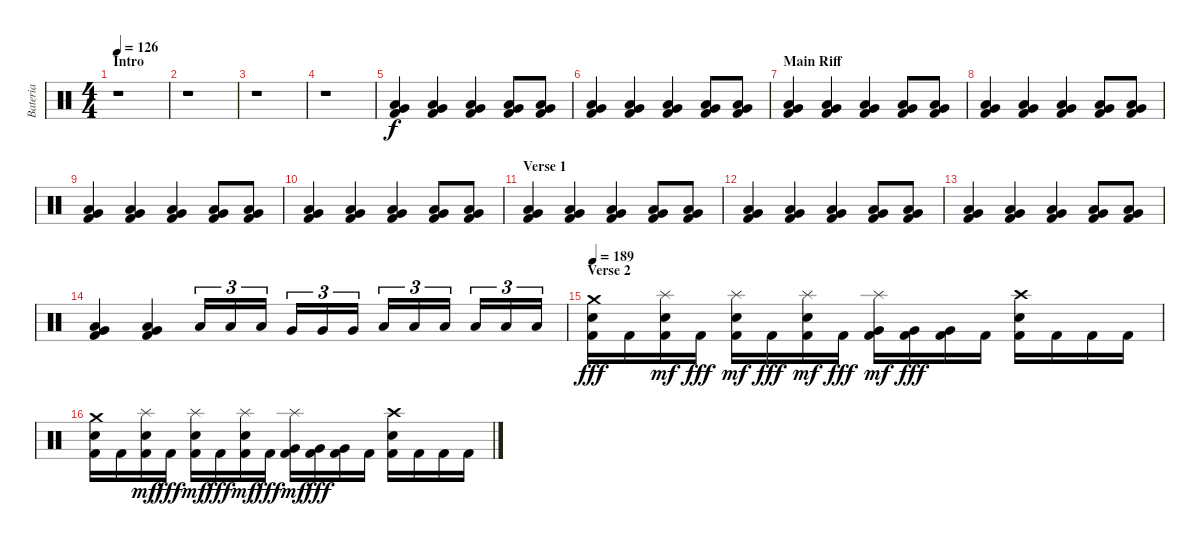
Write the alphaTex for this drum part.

\track ("Bateria" "Bateria") {instrument percussion}
\staff {score}
\articulation defaults
\ts (4 4)
\section ("" "Intro")
\tempo 126
\clef neutral
\ks c
r.1{dy f} |
r.1 |
r.1 |
r.1 |
("Kick (hit) 2" "Very Low Tom (hit)" "Low Floor Tom (hit)").4 ("Kick (hit) 2" "Very Low Tom (hit)" "Low Floor Tom (hit)").4 ("Kick (hit) 2" "Very Low Tom (hit)" "Low Floor Tom (hit)").4 ("Kick (hit) 2" "Very Low Tom (hit)" "Low Floor Tom (hit)").8 ("Kick (hit) 2" "Very Low Tom (hit)" "Low Floor Tom (hit)").8 |
("Kick (hit) 2" "Very Low Tom (hit)" "Low Floor Tom (hit)").4 ("Kick (hit) 2" "Very Low Tom (hit)" "Low Floor Tom (hit)").4 ("Kick (hit) 2" "Very Low Tom (hit)" "Low Floor Tom (hit)").4 ("Kick (hit) 2" "Very Low Tom (hit)" "Low Floor Tom (hit)").8 ("Kick (hit) 2" "Very Low Tom (hit)" "Low Floor Tom (hit)").8 |
\section ("" "Main Riff")
("Kick (hit) 2" "Very Low Tom (hit)" "Low Floor Tom (hit)").4 ("Kick (hit) 2" "Very Low Tom (hit)" "Low Floor Tom (hit)").4 ("Kick (hit) 2" "Very Low Tom (hit)" "Low Floor Tom (hit)").4 ("Kick (hit) 2" "Very Low Tom (hit)" "Low Floor Tom (hit)").8 ("Kick (hit) 2" "Very Low Tom (hit)" "Low Floor Tom (hit)").8 |
("Kick (hit) 2" "Very Low Tom (hit)" "Low Floor Tom (hit)").4 ("Kick (hit) 2" "Very Low Tom (hit)" "Low Floor Tom (hit)").4 ("Kick (hit) 2" "Very Low Tom (hit)" "Low Floor Tom (hit)").4 ("Kick (hit) 2" "Very Low Tom (hit)" "Low Floor Tom (hit)").8 ("Kick (hit) 2" "Very Low Tom (hit)" "Low Floor Tom (hit)").8 |
("Kick (hit) 2" "Very Low Tom (hit)" "Low Floor Tom (hit)").4 ("Kick (hit) 2" "Very Low Tom (hit)" "Low Floor Tom (hit)").4 ("Kick (hit) 2" "Very Low Tom (hit)" "Low Floor Tom (hit)").4 ("Kick (hit) 2" "Very Low Tom (hit)" "Low Floor Tom (hit)").8 ("Kick (hit) 2" "Very Low Tom (hit)" "Low Floor Tom (hit)").8 |
("Kick (hit) 2" "Very Low Tom (hit)" "Low Floor Tom (hit)").4 ("Kick (hit) 2" "Very Low Tom (hit)" "Low Floor Tom (hit)").4 ("Kick (hit) 2" "Very Low Tom (hit)" "Low Floor Tom (hit)").4 ("Kick (hit) 2" "Very Low Tom (hit)" "Low Floor Tom (hit)").8 ("Kick (hit) 2" "Very Low Tom (hit)" "Low Floor Tom (hit)").8 |
\section ("" "Verse 1")
("Kick (hit) 2" "Very Low Tom (hit)" "Low Floor Tom (hit)").4 ("Kick (hit) 2" "Very Low Tom (hit)" "Low Floor Tom (hit)").4 ("Kick (hit) 2" "Very Low Tom (hit)" "Low Floor Tom (hit)").4 ("Kick (hit) 2" "Very Low Tom (hit)" "Low Floor Tom (hit)").8 ("Kick (hit) 2" "Very Low Tom (hit)" "Low Floor Tom (hit)").8 |
("Kick (hit) 2" "Very Low Tom (hit)" "Low Floor Tom (hit)").4 ("Kick (hit) 2" "Very Low Tom (hit)" "Low Floor Tom (hit)").4 ("Kick (hit) 2" "Very Low Tom (hit)" "Low Floor Tom (hit)").4 ("Kick (hit) 2" "Very Low Tom (hit)" "Low Floor Tom (hit)").8 ("Kick (hit) 2" "Very Low Tom (hit)" "Low Floor Tom (hit)").8 |
("Kick (hit) 2" "Very Low Tom (hit)" "Low Floor Tom (hit)").4 ("Kick (hit) 2" "Very Low Tom (hit)" "Low Floor Tom (hit)").4 ("Kick (hit) 2" "Very Low Tom (hit)" "Low Floor Tom (hit)").4 ("Kick (hit) 2" "Very Low Tom (hit)" "Low Floor Tom (hit)").8 ("Kick (hit) 2" "Very Low Tom (hit)" "Low Floor Tom (hit)").8 |
("Kick (hit) 2" "Very Low Tom (hit)" "Low Floor Tom (hit)").4 ("Kick (hit) 2" "Very Low Tom (hit)" "Low Floor Tom (hit)").4 "Low Tom (hit)".16{tu (3 2)} "Low Tom (hit)".16{tu (3 2)} "Low Tom (hit)".16{tu (3 2)} "Very Low Tom (hit)".16{tu (3 2)} "Very Low Tom (hit)".16{tu (3 2)} "Very Low Tom (hit)".16{tu (3 2)} "Low Tom (hit)".16{tu (3 2)} "Low Tom (hit)".16{tu (3 2)} "Low Tom (hit)".16{tu (3 2)} "Low Floor Tom (hit)".16{tu (3 2)} "Low Floor Tom (hit)".16{tu (3 2)} "Low Floor Tom (hit)".16{tu (3 2)} |
\section ("" "Verse 2")
\tempo 189
("Kick (hit) 2" "Electric Snare (hit)" "Crash medium (hit)").16{dy fff} "Kick (hit) 2".16 ("Kick (hit) 2" "Electric Snare (hit)" "Splash (hit)").16{dy mf} "Kick (hit) 2".16{dy fff} ("Kick (hit) 2" "Electric Snare (hit)" "Splash (hit)").16{dy mf} "Kick (hit) 2".16{dy fff} ("Kick (hit) 2" "Electric Snare (hit)" "Splash (hit)").16{dy mf} "Kick (hit) 2".16{dy fff} ("Kick (hit) 2" "Very Low Tom (hit)" "Splash (hit)").16{dy mf} ("Kick (hit) 2" "Very Low Tom (hit)").16{dy fff} ("Kick (hit) 2" "Very Low Tom (hit)").16 "Kick (hit) 2".16 ("Kick (hit) 2" "Electric Snare (hit)" "Crash high (hit)").16 "Kick (hit) 2".16 "Kick (hit) 2".16 "Kick (hit) 2".16 |
("Kick (hit) 2" "Electric Snare (hit)" "Crash medium (hit)").16 "Kick (hit) 2".16 ("Kick (hit) 2" "Electric Snare (hit)" "Splash (hit)").16{dy mf} "Kick (hit) 2".16{dy fff} ("Kick (hit) 2" "Electric Snare (hit)" "Splash (hit)").16{dy mf} "Kick (hit) 2".16{dy fff} ("Kick (hit) 2" "Electric Snare (hit)" "Splash (hit)").16{dy mf} "Kick (hit) 2".16{dy fff} ("Kick (hit) 2" "Very Low Tom (hit)" "Splash (hit)").16{dy mf} ("Kick (hit) 2" "Very Low Tom (hit)").16{dy fff} ("Kick (hit) 2" "Very Low Tom (hit)").16 "Kick (hit) 2".16 ("Kick (hit) 2" "Electric Snare (hit)" "Crash high (hit)").16 "Kick (hit) 2".16 "Kick (hit) 2".16 "Kick (hit) 2".16
